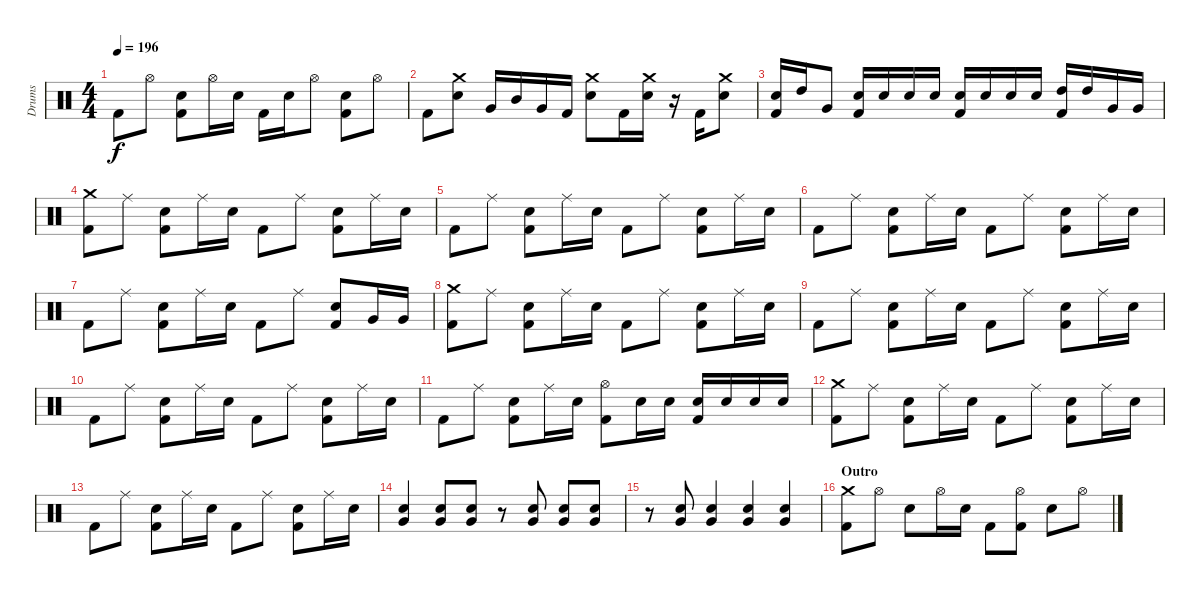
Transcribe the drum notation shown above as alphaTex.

\track ("Drums" "Drums") {instrument percussion}
\staff {score}
\articulation defaults
\ts (4 4)
\tempo 196
\clef neutral
\ks c "Kick (hit) 2".8{dy f} "Hi-Hat (open)".8
("Snare (hit) 2" "Kick (hit) 2").8 "Hi-Hat (open)".16 "Snare (hit) 2".16 "Kick (hit) 2".16 "Snare (hit) 2".16 "Hi-Hat (open)".8 ("Snare (hit) 2" "Kick (hit) 2").8 "Hi-Hat (open)".8 |
"Kick (hit) 2".8 ("Crash medium (hit)" "Snare (hit) 2").8 "Very Low Tom (hit)".16 "Mid Tom (hit)".16 "Very Low Tom (hit)".16 "Kick (hit) 2".16 ("Crash medium (hit)" "Snare (hit) 2").8 "Kick (hit) 2".16 ("Crash medium (hit)" "Snare (hit) 2").16 r.16 "Kick (hit) 2".16 ("Crash medium (hit)" "Snare (hit) 2").8 |
("Snare (hit) 2" "Kick (hit) 2").16 "High Tom (hit)".16 "Very Low Tom (hit)".8 ("Snare (hit) 2" "Kick (hit) 2").16 "Snare (hit) 2".16 "Snare (hit) 2".16 "Snare (hit) 2".16 ("Snare (hit) 2" "Kick (hit) 2").16 "Snare (hit) 2".16 "Snare (hit) 2".16 "Snare (hit) 2".16 ("High Tom (hit)" "Kick (hit) 2").16 "High Tom (hit)".16 "Very Low Tom (hit)".16 "Very Low Tom (hit)".16 |
("Crash medium (hit)" "Kick (hit) 2").8 "Ride (middle)".8 ("Snare (hit) 2" "Kick (hit) 2").8 "Ride (middle)".16 "Snare (hit) 2".16 "Kick (hit) 2".8 "Ride (middle)".8 ("Snare (hit) 2" "Kick (hit) 2").8 "Ride (middle)".16 "Snare (hit) 2".16 |
"Kick (hit) 2".8 "Ride (middle)".8 ("Snare (hit) 2" "Kick (hit) 2").8 "Ride (middle)".16 "Snare (hit) 2".16 "Kick (hit) 2".8 "Ride (middle)".8 ("Snare (hit) 2" "Kick (hit) 2").8 "Ride (middle)".16 "Snare (hit) 2".16 |
"Kick (hit) 2".8 "Ride (middle)".8 ("Snare (hit) 2" "Kick (hit) 2").8 "Ride (middle)".16 "Snare (hit) 2".16 "Kick (hit) 2".8 "Ride (middle)".8 ("Snare (hit) 2" "Kick (hit) 2").8 "Ride (middle)".16 "Snare (hit) 2".16 |
"Kick (hit) 2".8 "Ride (middle)".8 ("Snare (hit) 2" "Kick (hit) 2").8 "Ride (middle)".16 "Snare (hit) 2".16 "Kick (hit) 2".8 "Ride (middle)".8 ("Snare (hit) 2" "Kick (hit) 2").8 "Very Low Tom (hit)".16 "Very Low Tom (hit)".16 |
("Crash medium (hit)" "Kick (hit) 2").8 "Ride (middle)".8 ("Snare (hit) 2" "Kick (hit) 2").8 "Ride (middle)".16 "Snare (hit) 2".16 "Kick (hit) 2".8 "Ride (middle)".8 ("Snare (hit) 2" "Kick (hit) 2").8 "Ride (middle)".16 "Snare (hit) 2".16 |
"Kick (hit) 2".8 "Ride (middle)".8 ("Snare (hit) 2" "Kick (hit) 2").8 "Ride (middle)".16 "Snare (hit) 2".16 "Kick (hit) 2".8 "Ride (middle)".8 ("Snare (hit) 2" "Kick (hit) 2").8 "Ride (middle)".16 "Snare (hit) 2".16 |
"Kick (hit) 2".8 "Ride (middle)".8 ("Snare (hit) 2" "Kick (hit) 2").8 "Ride (middle)".16 "Snare (hit) 2".16 "Kick (hit) 2".8 "Ride (middle)".8 ("Snare (hit) 2" "Kick (hit) 2").8 "Ride (middle)".16 "Snare (hit) 2".16 |
"Kick (hit) 2".8 "Ride (middle)".8 ("Snare (hit) 2" "Kick (hit) 2").8 "Ride (middle)".16 "Snare (hit) 2".16 ("Hi-Hat (open)" "Kick (hit) 2").8 "Snare (hit) 2".16 "Snare (hit) 2".16 ("Snare (hit) 2" "Kick (hit) 2").16 "Snare (hit) 2".16 "Snare (hit) 2".16 "Snare (hit) 2".16 |
("Crash medium (hit)" "Kick (hit) 2").8 "Ride (middle)".8 ("Snare (hit) 2" "Kick (hit) 2").8 "Ride (middle)".16 "Snare (hit) 2".16 "Kick (hit) 2".8 "Ride (middle)".8 ("Snare (hit) 2" "Kick (hit) 2").8 "Ride (middle)".16 "Snare (hit) 2".16 |
"Kick (hit) 2".8 "Ride (middle)".8 ("Snare (hit) 2" "Kick (hit) 2").8 "Ride (middle)".16 "Snare (hit) 2".16 "Kick (hit) 2".8 "Ride (middle)".8 ("Snare (hit) 2" "Kick (hit) 2").8 "Ride (middle)".16 "Snare (hit) 2".16 |
("Snare (hit) 2" "Very Low Tom (hit)").4 ("Snare (hit) 2" "Very Low Tom (hit)").8 ("Snare (hit) 2" "Very Low Tom (hit)").8 r.8 ("Snare (hit) 2" "Very Low Tom (hit)").8 ("Snare (hit) 2" "Very Low Tom (hit)").8 ("Snare (hit) 2" "Very Low Tom (hit)").8 |
r.8 ("Snare (hit) 2" "Very Low Tom (hit)").8 ("Snare (hit) 2" "Very Low Tom (hit)").4 ("Snare (hit) 2" "Very Low Tom (hit)").4 ("Snare (hit) 2" "Very Low Tom (hit)").4 |
\section ("" "Outro")
("Crash medium (hit)" "Kick (hit) 2").8 "Hi-Hat (open)".8 "Snare (hit) 2".8 "Hi-Hat (open)".16 "Snare (hit) 2".16 "Kick (hit) 2".8 ("Hi-Hat (open)" "Kick (hit) 2").8 "Snare (hit) 2".8 "Hi-Hat (open)".8
